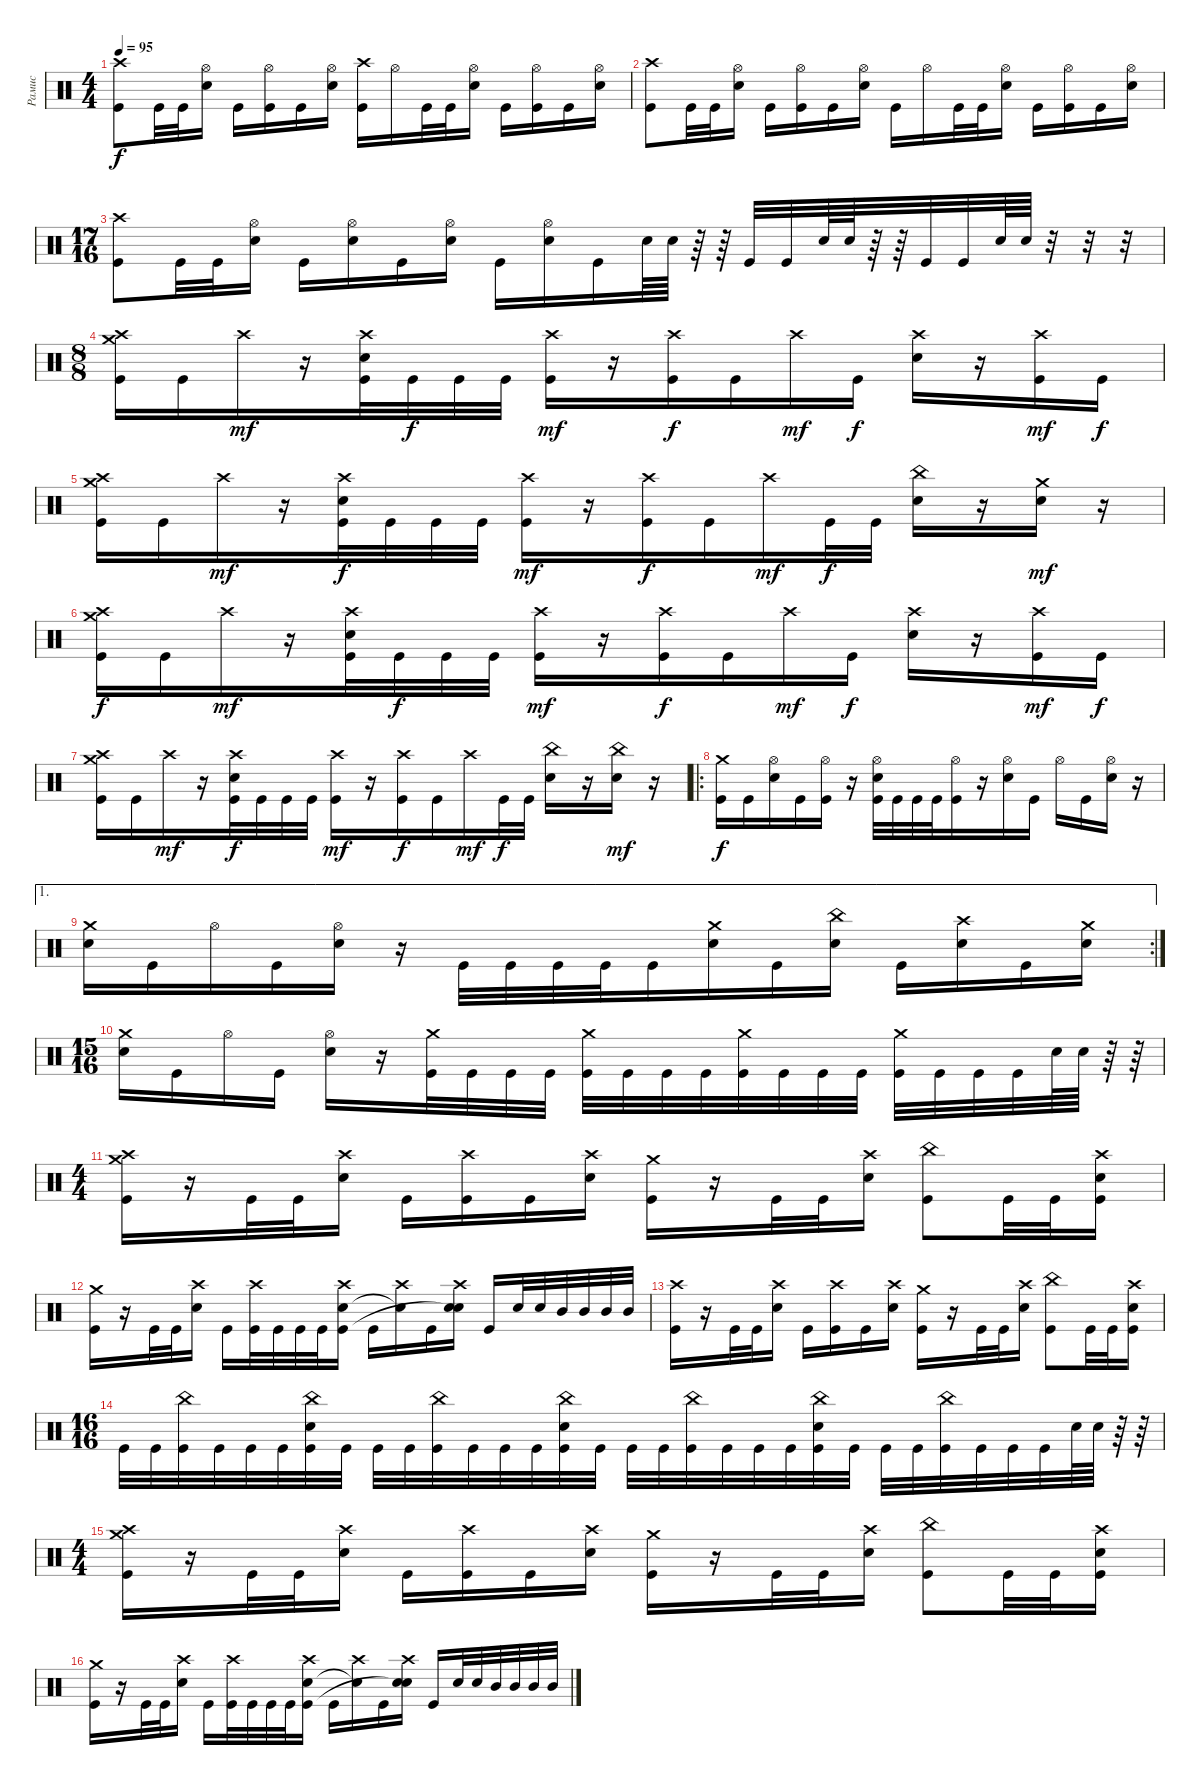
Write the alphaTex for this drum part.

\track ("Рамис" "Рамис") {instrument percussion}
\staff {score}
\articulation defaults
\ts (4 4)
\tempo 95
\clef neutral
\ks c
("Crash high (hit)" "Kick (hit)").8{dy f} "Kick (hit)".32 "Kick (hit)".32 ("Hi-Hat (open)" "Electric Snare (hit)").16 "Kick (hit)".16 ("Hi-Hat (open)" "Kick (hit)").16 "Kick (hit)".16 ("Hi-Hat (open)" "Electric Snare (hit)").16 ("Crash high (hit)" "Kick (hit)").16 "Hi-Hat (open)".16 "Kick (hit)".32 "Kick (hit)".32 ("Hi-Hat (open)" "Electric Snare (hit)").16 "Kick (hit)".16 ("Hi-Hat (open)" "Kick (hit)").16 "Kick (hit)".16 ("Hi-Hat (open)" "Electric Snare (hit)").16 |
("Crash high (hit)" "Kick (hit)").8 "Kick (hit)".32 "Kick (hit)".32 ("Hi-Hat (open)" "Electric Snare (hit)").16 "Kick (hit)".16 ("Hi-Hat (open)" "Kick (hit)").16 "Kick (hit)".16 ("Hi-Hat (open)" "Electric Snare (hit)").16 "Kick (hit)".16 "Hi-Hat (open)".16 "Kick (hit)".32 "Kick (hit)".32 ("Hi-Hat (open)" "Electric Snare (hit)").16 "Kick (hit)".16 ("Hi-Hat (open)" "Kick (hit)").16 "Kick (hit)".16 ("Hi-Hat (open)" "Electric Snare (hit)").16 |
\ts (17 16)
("Crash high (hit)" "Kick (hit)").8 "Kick (hit)".32 "Kick (hit)".32 ("Hi-Hat (open)" "Electric Snare (hit)").16 "Kick (hit)".16 ("Hi-Hat (open)" "Electric Snare (hit)").16 "Kick (hit)".16 ("Hi-Hat (open)" "Electric Snare (hit)").16 "Kick (hit)".16 ("Hi-Hat (open)" "Electric Snare (hit)").16 "Kick (hit)".16 "Electric Snare (hit)".64 "Electric Snare (hit)".64 r.64 r.64 "Kick (hit)".32 "Kick (hit)".32 "Electric Snare (hit)".64 "Electric Snare (hit)".64 r.64 r.64 "Kick (hit)".32 "Kick (hit)".32 "Electric Snare (hit)".64 "Electric Snare (hit)".64 r.32 r.32 r.32 |
\ts (8 8)
("Crash high (hit)" "Crash medium (hit)" "Kick (hit)").16 "Kick (hit)".16 "Crash high (hit)".16{dy mf} r.16 ("Crash high (hit)" "Electric Snare (hit)" "Kick (hit)").32 "Kick (hit)".32{dy f} "Kick (hit)".32 "Kick (hit)".32 ("Crash high (hit)" "Kick (hit)").16{dy mf} r.16 ("Crash high (hit)" "Kick (hit)").16{dy f} "Kick (hit)".16 "Crash high (hit)".16{dy mf} "Kick (hit)".16{dy f} ("Crash high (hit)" "Electric Snare (hit)").16 r.16 ("Crash high (hit)" "Kick (hit)").16{dy mf} "Kick (hit)".16{dy f} |
("Crash medium (hit)" "Crash high (hit)" "Kick (hit)").16 "Kick (hit)".16 "Crash high (hit)".16{dy mf} r.16 ("Crash high (hit)" "Electric Snare (hit)" "Kick (hit)").32{dy f} "Kick (hit)".32 "Kick (hit)".32 "Kick (hit)".32 ("Crash high (hit)" "Kick (hit)").16{dy mf} r.16 ("Crash high (hit)" "Kick (hit)").16{dy f} "Kick (hit)".16 "Crash high (hit)".16{dy mf} "Kick (hit)".32{dy f} "Kick (hit)".32 ("China (hit)" "Electric Snare (hit)").16 r.16 ("Crash medium (hit)" "Electric Snare (hit)").16{dy mf} r.16 |
("Crash high (hit)" "Crash medium (hit)" "Kick (hit)").16{dy f} "Kick (hit)".16 "Crash high (hit)".16{dy mf} r.16 ("Crash high (hit)" "Electric Snare (hit)" "Kick (hit)").32 "Kick (hit)".32{dy f} "Kick (hit)".32 "Kick (hit)".32 ("Crash high (hit)" "Kick (hit)").16{dy mf} r.16 ("Crash high (hit)" "Kick (hit)").16{dy f} "Kick (hit)".16 "Crash high (hit)".16{dy mf} "Kick (hit)".16{dy f} ("Crash high (hit)" "Electric Snare (hit)").16 r.16 ("Crash high (hit)" "Kick (hit)").16{dy mf} "Kick (hit)".16{dy f} |
("Crash medium (hit)" "Crash high (hit)" "Kick (hit)").16 "Kick (hit)".16 "Crash high (hit)".16{dy mf} r.16 ("Crash high (hit)" "Electric Snare (hit)" "Kick (hit)").32{dy f} "Kick (hit)".32 "Kick (hit)".32 "Kick (hit)".32 ("Crash high (hit)" "Kick (hit)").16{dy mf} r.16 ("Crash high (hit)" "Kick (hit)").16{dy f} "Kick (hit)".16 "Crash high (hit)".16{dy mf} "Kick (hit)".32{dy f} "Kick (hit)".32 ("China (hit)" "Electric Snare (hit)").16 r.16 ("China (hit)" "Electric Snare (hit)").16{dy mf} r.16 |
\ro
("Crash medium (hit)" "Kick (hit)").16{dy f} "Kick (hit)".16 ("Hi-Hat (open)" "Electric Snare (hit)").16 "Kick (hit)".16 ("Hi-Hat (open)" "Kick (hit)").16 r.16 ("Hi-Hat (open)" "Electric Snare (hit)" "Kick (hit)").32 "Kick (hit)".32 "Kick (hit)".32 "Kick (hit)".32 ("Hi-Hat (open)" "Kick (hit)").16 r.16 ("Hi-Hat (open)" "Electric Snare (hit)").16 "Kick (hit)".16 "Hi-Hat (open)".16 "Kick (hit)".16 ("Hi-Hat (open)" "Electric Snare (hit)").16 r.16 |
\ae 1
\rc 2
("Crash medium (hit)" "Electric Snare (hit)").16 "Kick (hit)".16 "Hi-Hat (open)".16 "Kick (hit)".16 ("Hi-Hat (open)" "Electric Snare (hit)").16 r.16 "Kick (hit)".32 "Kick (hit)".32 "Kick (hit)".32 "Kick (hit)".32 "Kick (hit)".16 ("Crash medium (hit)" "Electric Snare (hit)").16 "Kick (hit)".16 ("China (hit)" "Electric Snare (hit)").16 "Kick (hit)".16 ("Crash high (hit)" "Electric Snare (hit)").16 "Kick (hit)".16 ("Crash medium (hit)" "Electric Snare (hit)").16 |
\ts (15 16)
("Crash medium (hit)" "Electric Snare (hit)").16 "Kick (hit)".16 "Hi-Hat (open)".16 "Kick (hit)".16 ("Hi-Hat (open)" "Electric Snare (hit)").16 r.16 ("Crash medium (hit)" "Kick (hit)").32 "Kick (hit)".32 "Kick (hit)".32 "Kick (hit)".32 ("Crash medium (hit)" "Kick (hit)").32 "Kick (hit)".32 "Kick (hit)".32 "Kick (hit)".32 ("Crash medium (hit)" "Kick (hit)").32 "Kick (hit)".32 "Kick (hit)".32 "Kick (hit)".32 ("Crash medium (hit)" "Kick (hit)").32 "Kick (hit)".32 "Kick (hit)".32 "Kick (hit)".32 "Electric Snare (hit)".64 "Electric Snare (hit)".64 r.64 r.64 |
\ts (4 4)
("Crash high (hit)" "Crash medium (hit)" "Kick (hit)").16 r.16 "Kick (hit)".32 "Kick (hit)".32 ("Crash high (hit)" "Electric Snare (hit)").16 "Kick (hit)".16 ("Crash high (hit)" "Kick (hit)").16 "Kick (hit)".16 ("Crash high (hit)" "Electric Snare (hit)").16 ("Crash medium (hit)" "Kick (hit)").16 r.16 "Kick (hit)".32 "Kick (hit)".32 ("Crash high (hit)" "Electric Snare (hit)").16 ("China (hit)" "Kick (hit)").8 "Kick (hit)".32 "Kick (hit)".32 ("Crash high (hit)" "Electric Snare (hit)" "Kick (hit)").16 |
("Crash medium (hit)" "Kick (hit)").16 r.16 "Kick (hit)".32 "Kick (hit)".32 ("Crash high (hit)" "Electric Snare (hit)").16 "Kick (hit)".16 ("Crash high (hit)" "Kick (hit)").32 "Kick (hit)".32 "Kick (hit)".32 "Kick (hit)".32 ("Crash high (hit)" "Electric Snare (hit)" "Kick (hit)").16 "Kick (hit)".16 ("Crash high (hit)" "Snare (hit)"{t}).16 "Kick (hit)".16 ("Crash high (hit)" "Electric Snare (hit)" "Snare (hit)"{t}).16 "Kick (hit)".16 "Electric Snare (hit)".32 "Electric Snare (hit)".32 "Mid Tom (hit)".32 "Mid Tom (hit)".32 "Mid Tom (hit)".32 "Mid Tom (hit)".32 |
("Crash high (hit)" "Kick (hit)").16 r.16 "Kick (hit)".32 "Kick (hit)".32 ("Crash high (hit)" "Electric Snare (hit)").16 "Kick (hit)".16 ("Crash high (hit)" "Kick (hit)").16 "Kick (hit)".16 ("Crash high (hit)" "Electric Snare (hit)").16 ("Crash medium (hit)" "Kick (hit)").16 r.16 "Kick (hit)".32 "Kick (hit)".32 ("Crash high (hit)" "Electric Snare (hit)").16 ("China (hit)" "Kick (hit)").8 "Kick (hit)".32 "Kick (hit)".32 ("Crash high (hit)" "Electric Snare (hit)" "Kick (hit)").16 |
\ts (16 16)
"Kick (hit)".32 "Kick (hit)".32 ("China (hit)" "Kick (hit)").32 "Kick (hit)".32 "Kick (hit)".32 "Kick (hit)".32 ("China (hit)" "Electric Snare (hit)" "Kick (hit)").32 "Kick (hit)".32 "Kick (hit)".32 "Kick (hit)".32 ("China (hit)" "Kick (hit)").32 "Kick (hit)".32 "Kick (hit)".32 "Kick (hit)".32 ("China (hit)" "Electric Snare (hit)" "Kick (hit)").32 "Kick (hit)".32 "Kick (hit)".32 "Kick (hit)".32 ("China (hit)" "Kick (hit)").32 "Kick (hit)".32 "Kick (hit)".32 "Kick (hit)".32 ("China (hit)" "Electric Snare (hit)" "Kick (hit)").32 "Kick (hit)".32 "Kick (hit)".32 "Kick (hit)".32 ("China (hit)" "Kick (hit)").32 "Kick (hit)".32 "Kick (hit)".32 "Kick (hit)".32 "Electric Snare (hit)".64 "Electric Snare (hit)".64 r.64 r.64 |
\ts (4 4)
("Crash high (hit)" "Crash medium (hit)" "Kick (hit)").16 r.16 "Kick (hit)".32 "Kick (hit)".32 ("Crash high (hit)" "Electric Snare (hit)").16 "Kick (hit)".16 ("Crash high (hit)" "Kick (hit)").16 "Kick (hit)".16 ("Crash high (hit)" "Electric Snare (hit)").16 ("Crash medium (hit)" "Kick (hit)").16 r.16 "Kick (hit)".32 "Kick (hit)".32 ("Crash high (hit)" "Electric Snare (hit)").16 ("China (hit)" "Kick (hit)").8 "Kick (hit)".32 "Kick (hit)".32 ("Crash high (hit)" "Electric Snare (hit)" "Kick (hit)").16 |
("Crash medium (hit)" "Kick (hit)").16 r.16 "Kick (hit)".32 "Kick (hit)".32 ("Crash high (hit)" "Electric Snare (hit)").16 "Kick (hit)".16 ("Crash high (hit)" "Kick (hit)").32 "Kick (hit)".32 "Kick (hit)".32 "Kick (hit)".32 ("Crash high (hit)" "Electric Snare (hit)" "Kick (hit)").16 "Kick (hit)".16 ("Crash high (hit)" "Snare (hit)"{t}).16 "Kick (hit)".16 ("Crash high (hit)" "Electric Snare (hit)" "Snare (hit)"{t}).16 "Kick (hit)".16 "Electric Snare (hit)".32 "Electric Snare (hit)".32 "Mid Tom (hit)".32 "Mid Tom (hit)".32 "Mid Tom (hit)".32 "Mid Tom (hit)".32
